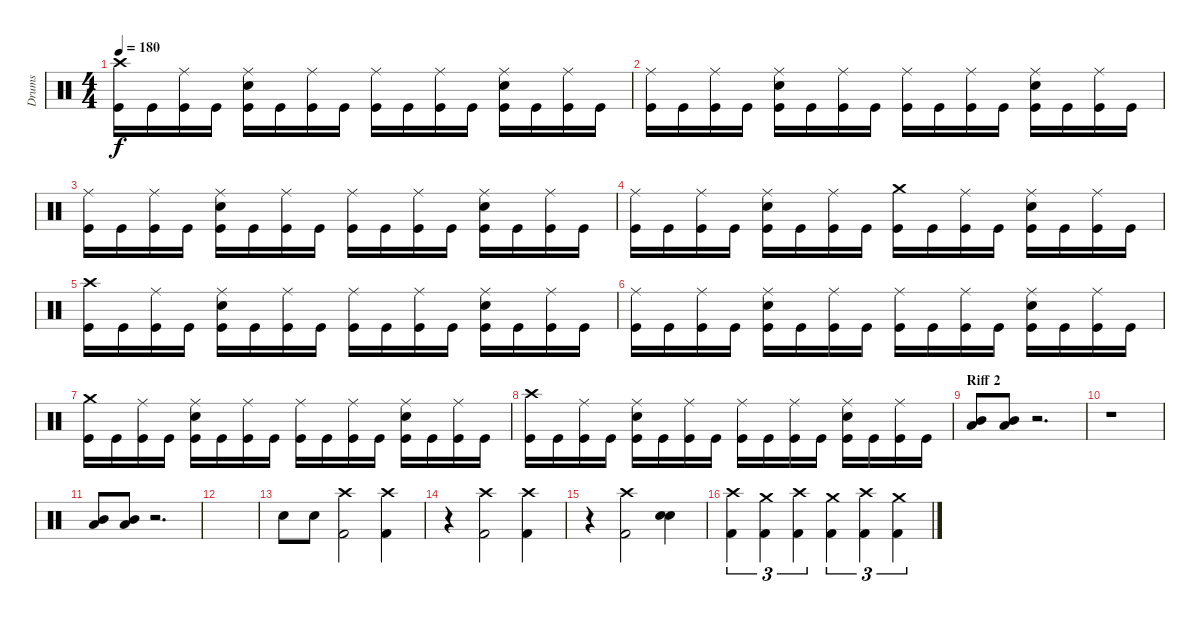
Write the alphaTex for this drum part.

\track ("Drums" "Drums") {instrument percussion}
\staff {score}
\articulation defaults
\ts (4 4)
\tempo 180
\clef neutral
\ks c
("Crash high (hit)" "Kick (hit)").16{dy f} "Kick (hit)".16 ("Ride (middle)" "Kick (hit)").16 "Kick (hit)".16 ("Ride (middle)" "Snare (hit) 2" "Kick (hit)").16 "Kick (hit)".16 ("Ride (middle)" "Kick (hit)").16 "Kick (hit)".16 ("Ride (middle)" "Kick (hit)").16 "Kick (hit)".16 ("Ride (middle)" "Kick (hit)").16 "Kick (hit)".16 ("Ride (middle)" "Snare (hit) 2" "Kick (hit)").16 "Kick (hit)".16 ("Ride (middle)" "Kick (hit)").16 "Kick (hit)".16 |
("Ride (middle)" "Kick (hit)").16 "Kick (hit)".16 ("Ride (middle)" "Kick (hit)").16 "Kick (hit)".16 ("Ride (middle)" "Snare (hit) 2" "Kick (hit)").16 "Kick (hit)".16 ("Ride (middle)" "Kick (hit)").16 "Kick (hit)".16 ("Ride (middle)" "Kick (hit)").16 "Kick (hit)".16 ("Ride (middle)" "Kick (hit)").16 "Kick (hit)".16 ("Ride (middle)" "Snare (hit) 2" "Kick (hit)").16 "Kick (hit)".16 ("Ride (middle)" "Kick (hit)").16 "Kick (hit)".16 |
("Ride (middle)" "Kick (hit)").16 "Kick (hit)".16 ("Ride (middle)" "Kick (hit)").16 "Kick (hit)".16 ("Ride (middle)" "Snare (hit) 2" "Kick (hit)").16 "Kick (hit)".16 ("Ride (middle)" "Kick (hit)").16 "Kick (hit)".16 ("Ride (middle)" "Kick (hit)").16 "Kick (hit)".16 ("Ride (middle)" "Kick (hit)").16 "Kick (hit)".16 ("Ride (middle)" "Snare (hit) 2" "Kick (hit)").16 "Kick (hit)".16 ("Ride (middle)" "Kick (hit)").16 "Kick (hit)".16 |
("Ride (middle)" "Kick (hit)").16 "Kick (hit)".16 ("Ride (middle)" "Kick (hit)").16 "Kick (hit)".16 ("Ride (middle)" "Snare (hit) 2" "Kick (hit)").16 "Kick (hit)".16 ("Ride (middle)" "Kick (hit)").16 "Kick (hit)".16 ("Crash medium (hit)" "Kick (hit)").16 "Kick (hit)".16 ("Ride (middle)" "Kick (hit)").16 "Kick (hit)".16 ("Ride (middle)" "Snare (hit) 2" "Kick (hit)").16 "Kick (hit)".16 ("Ride (middle)" "Kick (hit)").16 "Kick (hit)".16 |
("Crash high (hit)" "Kick (hit)").16 "Kick (hit)".16 ("Ride (middle)" "Kick (hit)").16 "Kick (hit)".16 ("Ride (middle)" "Snare (hit) 2" "Kick (hit)").16 "Kick (hit)".16 ("Ride (middle)" "Kick (hit)").16 "Kick (hit)".16 ("Ride (middle)" "Kick (hit)").16 "Kick (hit)".16 ("Ride (middle)" "Kick (hit)").16 "Kick (hit)".16 ("Ride (middle)" "Snare (hit) 2" "Kick (hit)").16 "Kick (hit)".16 ("Ride (middle)" "Kick (hit)").16 "Kick (hit)".16 |
("Ride (middle)" "Kick (hit)").16 "Kick (hit)".16 ("Ride (middle)" "Kick (hit)").16 "Kick (hit)".16 ("Ride (middle)" "Snare (hit) 2" "Kick (hit)").16 "Kick (hit)".16 ("Ride (middle)" "Kick (hit)").16 "Kick (hit)".16 ("Ride (middle)" "Kick (hit)").16 "Kick (hit)".16 ("Ride (middle)" "Kick (hit)").16 "Kick (hit)".16 ("Ride (middle)" "Snare (hit) 2" "Kick (hit)").16 "Kick (hit)".16 ("Ride (middle)" "Kick (hit)").16 "Kick (hit)".16 |
("Crash medium (hit)" "Kick (hit)").16 "Kick (hit)".16 ("Ride (middle)" "Kick (hit)").16 "Kick (hit)".16 ("Ride (middle)" "Snare (hit) 2" "Kick (hit)").16 "Kick (hit)".16 ("Ride (middle)" "Kick (hit)").16 "Kick (hit)".16 ("Ride (middle)" "Kick (hit)").16 "Kick (hit)".16 ("Ride (middle)" "Kick (hit)").16 "Kick (hit)".16 ("Ride (middle)" "Snare (hit) 2" "Kick (hit)").16 "Kick (hit)".16 ("Ride (middle)" "Kick (hit)").16 "Kick (hit)".16 |
("Crash high (hit)" "Kick (hit)").16 "Kick (hit)".16 ("Ride (middle)" "Kick (hit)").16 "Kick (hit)".16 ("Ride (middle)" "Snare (hit) 2" "Kick (hit)").16 "Kick (hit)".16 ("Ride (middle)" "Kick (hit)").16 "Kick (hit)".16 ("Ride (middle)" "Kick (hit)").16 "Kick (hit)".16 ("Ride (middle)" "Kick (hit)").16 "Kick (hit)".16 ("Ride (middle)" "Snare (hit) 2" "Kick (hit)").16 "Kick (hit)".16 ("Ride (middle)" "Kick (hit)").16 "Kick (hit)".16 |
\section ("" "Riff 2")
("Mid Tom (hit)" "Low Tom (hit)").8 ("Mid Tom (hit)" "Low Tom (hit)").8 r.2{d} |
r.1 |
("Mid Tom (hit)" "Low Tom (hit)").8 ("Mid Tom (hit)" "Low Tom (hit)").8 r.2{d} |
|
"Snare (hit) 2".8 "Snare (hit) 2".8 ("Crash high (hit)" "Kick (hit) 2").2 ("Crash high (hit)" "Kick (hit) 2").4 |
r.4 ("Crash high (hit)" "Kick (hit) 2").2 ("Crash high (hit)" "Kick (hit) 2").4 |
r.4 ("Crash high (hit)" "Kick (hit) 2").2 ("Electric Snare (hit)" "Snare (hit) 2").4 |
("Crash high (hit)" "Kick (hit) 2").4{tu (3 2)} ("Crash medium (hit)" "Kick (hit) 2").4{tu (3 2)} ("Crash high (hit)" "Kick (hit) 2").4{tu (3 2)} ("Crash medium (hit)" "Kick (hit) 2").4{tu (3 2)} ("Crash high (hit)" "Kick (hit) 2").4{tu (3 2)} ("Crash medium (hit)" "Kick (hit) 2").4{tu (3 2)}
